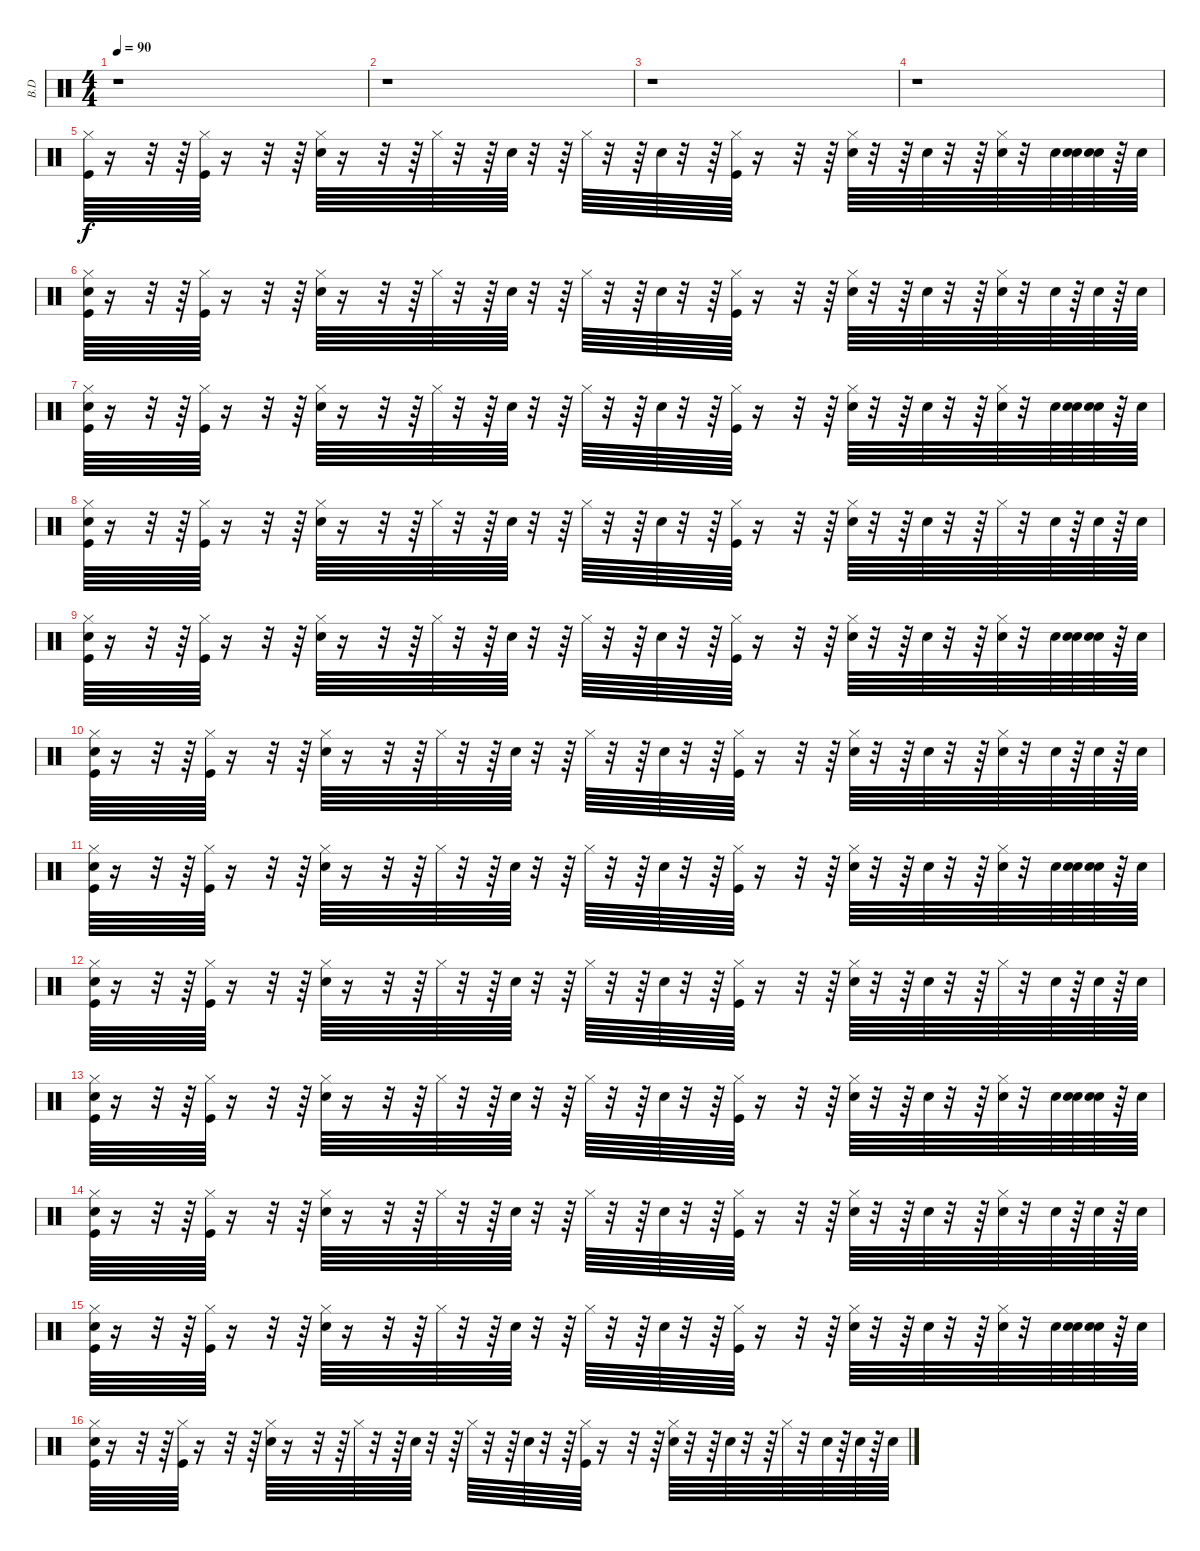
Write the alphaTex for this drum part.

\track ("B.D" "B.D") {instrument percussion}
\staff {score}
\articulation defaults
\ts (4 4)
\tempo 90
\clef neutral
\ks c
r.1{dy f} |
r.1 |
r.1 |
r.1 |
("Kick (hit)" "Hi-Hat (closed)").64 r.16 r.32 r.64 ("Kick (hit)" "Hi-Hat (closed)").64 r.16 r.32 r.64 ("Electric Snare (hit)" "Hi-Hat (closed)").64 r.16 r.32 r.64 "Hi-Hat (closed)".64 r.32 r.64 "Electric Snare (hit)".64 r.32 r.64 "Hi-Hat (closed)".64 r.32 r.64 "Electric Snare (hit)".64 r.32 r.64 ("Kick (hit)" "Hi-Hat (closed)").64 r.16 r.32 r.64 ("Electric Snare (hit)" "Hi-Hat (closed)").64 r.32 r.64 "Electric Snare (hit)".64 r.32 r.64 ("Electric Snare (hit)" "Hi-Hat (closed)").64 r.32 "Electric Snare (hit)".64 ("Snare (hit)" "Electric Snare (hit)").64 ("Snare (hit)" "Electric Snare (hit)").64 r.64 "Electric Snare (hit)".64 |
("Snare (hit)" "Kick (hit)" "Hi-Hat (closed)").64 r.16 r.32 r.64 ("Kick (hit)" "Hi-Hat (closed)").64 r.16 r.32 r.64 ("Electric Snare (hit)" "Hi-Hat (closed)").64 r.16 r.32 r.64 "Hi-Hat (closed)".64 r.32 r.64 "Electric Snare (hit)".64 r.32 r.64 "Hi-Hat (closed)".64 r.32 r.64 "Electric Snare (hit)".64 r.32 r.64 ("Kick (hit)" "Hi-Hat (closed)").64 r.16 r.32 r.64 ("Electric Snare (hit)" "Hi-Hat (closed)").64 r.32 r.64 "Electric Snare (hit)".64 r.32 r.64 ("Electric Snare (hit)" "Hi-Hat (closed)").64 r.32 "Electric Snare (hit)".64 r.64 "Electric Snare (hit)".64 r.64 "Electric Snare (hit)".64 |
("Snare (hit)" "Kick (hit)" "Hi-Hat (closed)").64 r.16 r.32 r.64 ("Kick (hit)" "Hi-Hat (closed)").64 r.16 r.32 r.64 ("Electric Snare (hit)" "Hi-Hat (closed)").64 r.16 r.32 r.64 "Hi-Hat (closed)".64 r.32 r.64 "Electric Snare (hit)".64 r.32 r.64 "Hi-Hat (closed)".64 r.32 r.64 "Electric Snare (hit)".64 r.32 r.64 ("Kick (hit)" "Hi-Hat (closed)").64 r.16 r.32 r.64 ("Electric Snare (hit)" "Hi-Hat (closed)").64 r.32 r.64 "Electric Snare (hit)".64 r.32 r.64 ("Electric Snare (hit)" "Hi-Hat (closed)").64 r.32 "Electric Snare (hit)".64 ("Snare (hit)" "Electric Snare (hit)").64 ("Snare (hit)" "Electric Snare (hit)").64 r.64 "Electric Snare (hit)".64 |
("Snare (hit)" "Kick (hit)" "Hi-Hat (closed)").64 r.16 r.32 r.64 ("Kick (hit)" "Hi-Hat (closed)").64 r.16 r.32 r.64 ("Electric Snare (hit)" "Hi-Hat (closed)").64 r.16 r.32 r.64 "Hi-Hat (closed)".64 r.32 r.64 "Electric Snare (hit)".64 r.32 r.64 "Hi-Hat (closed)".64 r.32 r.64 "Electric Snare (hit)".64 r.32 r.64 ("Kick (hit)" "Hi-Hat (closed)").64 r.16 r.32 r.64 ("Electric Snare (hit)" "Hi-Hat (closed)").64 r.32 r.64 "Electric Snare (hit)".64 r.32 r.64 "Hi-Hat (closed)".64 r.32 "Electric Snare (hit)".64 r.64 "Electric Snare (hit)".64 r.64 "Electric Snare (hit)".64 |
("Snare (hit)" "Kick (hit)" "Hi-Hat (closed)").64 r.16 r.32 r.64 ("Kick (hit)" "Hi-Hat (closed)").64 r.16 r.32 r.64 ("Electric Snare (hit)" "Hi-Hat (closed)").64 r.16 r.32 r.64 "Hi-Hat (closed)".64 r.32 r.64 "Electric Snare (hit)".64 r.32 r.64 "Hi-Hat (closed)".64 r.32 r.64 "Electric Snare (hit)".64 r.32 r.64 ("Kick (hit)" "Hi-Hat (closed)").64 r.16 r.32 r.64 ("Electric Snare (hit)" "Hi-Hat (closed)").64 r.32 r.64 "Electric Snare (hit)".64 r.32 r.64 ("Electric Snare (hit)" "Hi-Hat (closed)").64 r.32 "Electric Snare (hit)".64 ("Snare (hit)" "Electric Snare (hit)").64 ("Snare (hit)" "Electric Snare (hit)").64 r.64 "Electric Snare (hit)".64 |
("Snare (hit)" "Kick (hit)" "Hi-Hat (closed)").64 r.16 r.32 r.64 ("Kick (hit)" "Hi-Hat (closed)").64 r.16 r.32 r.64 ("Electric Snare (hit)" "Hi-Hat (closed)").64 r.16 r.32 r.64 "Hi-Hat (closed)".64 r.32 r.64 "Electric Snare (hit)".64 r.32 r.64 "Hi-Hat (closed)".64 r.32 r.64 "Electric Snare (hit)".64 r.32 r.64 ("Kick (hit)" "Hi-Hat (closed)").64 r.16 r.32 r.64 ("Electric Snare (hit)" "Hi-Hat (closed)").64 r.32 r.64 "Electric Snare (hit)".64 r.32 r.64 ("Electric Snare (hit)" "Hi-Hat (closed)").64 r.32 "Electric Snare (hit)".64 r.64 "Electric Snare (hit)".64 r.64 "Electric Snare (hit)".64 |
("Snare (hit)" "Kick (hit)" "Hi-Hat (closed)").64 r.16 r.32 r.64 ("Kick (hit)" "Hi-Hat (closed)").64 r.16 r.32 r.64 ("Electric Snare (hit)" "Hi-Hat (closed)").64 r.16 r.32 r.64 "Hi-Hat (closed)".64 r.32 r.64 "Electric Snare (hit)".64 r.32 r.64 "Hi-Hat (closed)".64 r.32 r.64 "Electric Snare (hit)".64 r.32 r.64 ("Kick (hit)" "Hi-Hat (closed)").64 r.16 r.32 r.64 ("Electric Snare (hit)" "Hi-Hat (closed)").64 r.32 r.64 "Electric Snare (hit)".64 r.32 r.64 ("Electric Snare (hit)" "Hi-Hat (closed)").64 r.32 "Electric Snare (hit)".64 ("Snare (hit)" "Electric Snare (hit)").64 ("Snare (hit)" "Electric Snare (hit)").64 r.64 "Electric Snare (hit)".64 |
("Snare (hit)" "Kick (hit)" "Hi-Hat (closed)").64 r.16 r.32 r.64 ("Kick (hit)" "Hi-Hat (closed)").64 r.16 r.32 r.64 ("Electric Snare (hit)" "Hi-Hat (closed)").64 r.16 r.32 r.64 "Hi-Hat (closed)".64 r.32 r.64 "Electric Snare (hit)".64 r.32 r.64 "Hi-Hat (closed)".64 r.32 r.64 "Electric Snare (hit)".64 r.32 r.64 ("Kick (hit)" "Hi-Hat (closed)").64 r.16 r.32 r.64 ("Electric Snare (hit)" "Hi-Hat (closed)").64 r.32 r.64 "Electric Snare (hit)".64 r.32 r.64 "Hi-Hat (closed)".64 r.32 "Electric Snare (hit)".64 r.64 "Electric Snare (hit)".64 r.64 "Electric Snare (hit)".64 |
("Snare (hit)" "Kick (hit)" "Hi-Hat (closed)").64 r.16 r.32 r.64 ("Kick (hit)" "Hi-Hat (closed)").64 r.16 r.32 r.64 ("Electric Snare (hit)" "Hi-Hat (closed)").64 r.16 r.32 r.64 "Hi-Hat (closed)".64 r.32 r.64 "Electric Snare (hit)".64 r.32 r.64 "Hi-Hat (closed)".64 r.32 r.64 "Electric Snare (hit)".64 r.32 r.64 ("Kick (hit)" "Hi-Hat (closed)").64 r.16 r.32 r.64 ("Electric Snare (hit)" "Hi-Hat (closed)").64 r.32 r.64 "Electric Snare (hit)".64 r.32 r.64 ("Electric Snare (hit)" "Hi-Hat (closed)").64 r.32 "Electric Snare (hit)".64 ("Snare (hit)" "Electric Snare (hit)").64 ("Snare (hit)" "Electric Snare (hit)").64 r.64 "Electric Snare (hit)".64 |
("Snare (hit)" "Kick (hit)" "Hi-Hat (closed)").64 r.16 r.32 r.64 ("Kick (hit)" "Hi-Hat (closed)").64 r.16 r.32 r.64 ("Electric Snare (hit)" "Hi-Hat (closed)").64 r.16 r.32 r.64 "Hi-Hat (closed)".64 r.32 r.64 "Electric Snare (hit)".64 r.32 r.64 "Hi-Hat (closed)".64 r.32 r.64 "Electric Snare (hit)".64 r.32 r.64 ("Kick (hit)" "Hi-Hat (closed)").64 r.16 r.32 r.64 ("Electric Snare (hit)" "Hi-Hat (closed)").64 r.32 r.64 "Electric Snare (hit)".64 r.32 r.64 ("Electric Snare (hit)" "Hi-Hat (closed)").64 r.32 "Electric Snare (hit)".64 r.64 "Electric Snare (hit)".64 r.64 "Electric Snare (hit)".64 |
("Snare (hit)" "Kick (hit)" "Hi-Hat (closed)").64 r.16 r.32 r.64 ("Kick (hit)" "Hi-Hat (closed)").64 r.16 r.32 r.64 ("Electric Snare (hit)" "Hi-Hat (closed)").64 r.16 r.32 r.64 "Hi-Hat (closed)".64 r.32 r.64 "Electric Snare (hit)".64 r.32 r.64 "Hi-Hat (closed)".64 r.32 r.64 "Electric Snare (hit)".64 r.32 r.64 ("Kick (hit)" "Hi-Hat (closed)").64 r.16 r.32 r.64 ("Electric Snare (hit)" "Hi-Hat (closed)").64 r.32 r.64 "Electric Snare (hit)".64 r.32 r.64 ("Electric Snare (hit)" "Hi-Hat (closed)").64 r.32 "Electric Snare (hit)".64 ("Snare (hit)" "Electric Snare (hit)").64 ("Snare (hit)" "Electric Snare (hit)").64 r.64 "Electric Snare (hit)".64 |
("Snare (hit)" "Kick (hit)" "Hi-Hat (closed)").64 r.16 r.32 r.64 ("Kick (hit)" "Hi-Hat (closed)").64 r.16 r.32 r.64 ("Electric Snare (hit)" "Hi-Hat (closed)").64 r.16 r.32 r.64 "Hi-Hat (closed)".64 r.32 r.64 "Electric Snare (hit)".64 r.32 r.64 "Hi-Hat (closed)".64 r.32 r.64 "Electric Snare (hit)".64 r.32 r.64 ("Kick (hit)" "Hi-Hat (closed)").64 r.16 r.32 r.64 ("Electric Snare (hit)" "Hi-Hat (closed)").64 r.32 r.64 "Electric Snare (hit)".64 r.32 r.64 "Hi-Hat (closed)".64 r.32 "Electric Snare (hit)".64 r.64 "Electric Snare (hit)".64 r.64 "Electric Snare (hit)".64
